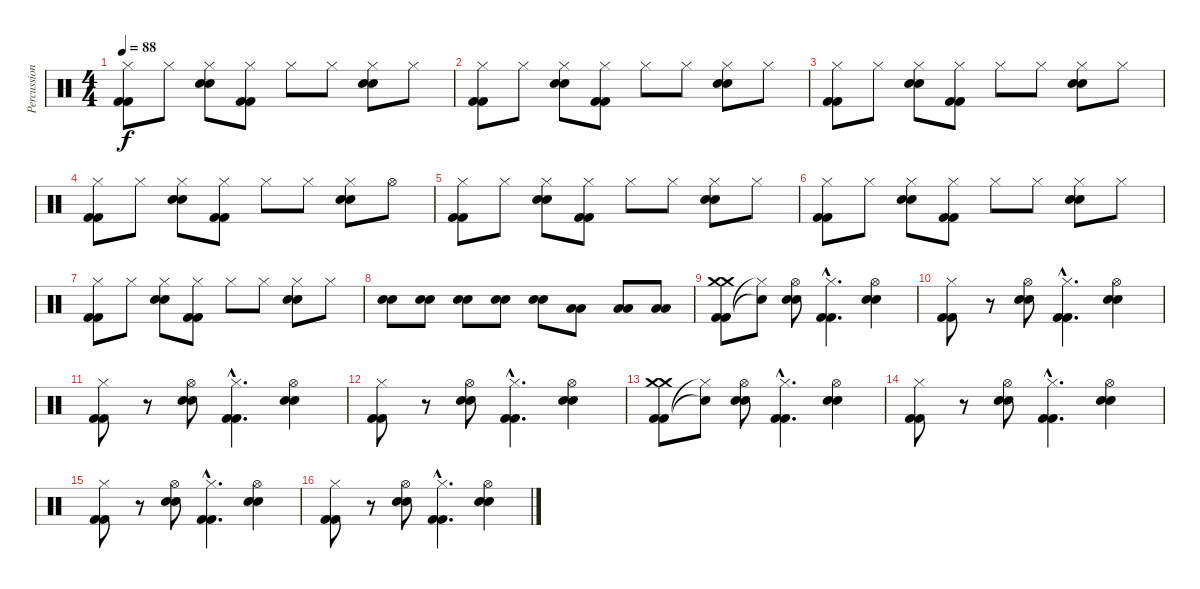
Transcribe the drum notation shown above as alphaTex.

\track ("Percussion" "Percussion") {instrument percussion}
\staff {score}
\articulation defaults
\ts (4 4)
\tempo 88
\clef neutral
\ks c
("Kick (hit) 2" "Kick (hit) 2" "Hi-Hat (closed)").8{dy f} "Hi-Hat (closed)".8 ("Snare (hit) 2" "Snare (hit) 2" "Hi-Hat (closed)").8 ("Kick (hit) 2" "Kick (hit) 2" "Hi-Hat (closed)").8 "Hi-Hat (closed)".8 "Hi-Hat (closed)".8 ("Snare (hit) 2" "Snare (hit) 2" "Hi-Hat (closed)").8 "Hi-Hat (closed)".8 |
("Kick (hit) 2" "Kick (hit) 2" "Hi-Hat (closed)").8 "Hi-Hat (closed)".8 ("Snare (hit) 2" "Snare (hit) 2" "Hi-Hat (closed)").8 ("Kick (hit) 2" "Kick (hit) 2" "Hi-Hat (closed)").8 "Hi-Hat (closed)".8 "Hi-Hat (closed)".8 ("Snare (hit) 2" "Snare (hit) 2" "Hi-Hat (closed)").8 "Hi-Hat (closed)".8 |
("Kick (hit) 2" "Kick (hit) 2" "Hi-Hat (closed)").8 "Hi-Hat (closed)".8 ("Snare (hit) 2" "Snare (hit) 2" "Hi-Hat (closed)").8 ("Kick (hit) 2" "Kick (hit) 2" "Hi-Hat (closed)").8 "Hi-Hat (closed)".8 "Hi-Hat (closed)".8 ("Snare (hit) 2" "Snare (hit) 2" "Hi-Hat (closed)").8 "Hi-Hat (closed)".8 |
("Kick (hit) 2" "Kick (hit) 2" "Hi-Hat (closed)").8 "Hi-Hat (closed)".8 ("Snare (hit) 2" "Snare (hit) 2" "Hi-Hat (closed)").8 ("Kick (hit) 2" "Kick (hit) 2" "Hi-Hat (closed)").8 "Hi-Hat (closed)".8 "Hi-Hat (closed)".8 ("Snare (hit) 2" "Snare (hit) 2" "Hi-Hat (closed)").8 "Hi-Hat (open)".8 |
("Kick (hit) 2" "Kick (hit) 2" "Hi-Hat (closed)").8 "Hi-Hat (closed)".8 ("Snare (hit) 2" "Snare (hit) 2" "Hi-Hat (closed)").8 ("Kick (hit) 2" "Kick (hit) 2" "Hi-Hat (closed)").8 "Hi-Hat (closed)".8 "Hi-Hat (closed)".8 ("Snare (hit) 2" "Snare (hit) 2" "Hi-Hat (closed)").8 "Hi-Hat (closed)".8 |
("Kick (hit) 2" "Kick (hit) 2" "Hi-Hat (closed)").8 "Hi-Hat (closed)".8 ("Snare (hit) 2" "Snare (hit) 2" "Hi-Hat (closed)").8 ("Kick (hit) 2" "Kick (hit) 2" "Hi-Hat (closed)").8 "Hi-Hat (closed)".8 "Hi-Hat (closed)".8 ("Snare (hit) 2" "Snare (hit) 2" "Hi-Hat (closed)").8 "Hi-Hat (closed)".8 |
("Kick (hit) 2" "Kick (hit) 2" "Hi-Hat (closed)").8 "Hi-Hat (closed)".8 ("Snare (hit) 2" "Snare (hit) 2" "Hi-Hat (closed)").8 ("Kick (hit) 2" "Kick (hit) 2" "Hi-Hat (closed)").8 "Hi-Hat (closed)".8 "Hi-Hat (closed)".8 ("Snare (hit) 2" "Snare (hit) 2" "Hi-Hat (closed)").8 "Hi-Hat (closed)".8 |
("Snare (hit) 2" "Snare (hit) 2").8 ("Snare (hit) 2" "Snare (hit) 2").8 ("Snare (hit) 2" "Snare (hit) 2").8 ("Snare (hit) 2" "Snare (hit) 2").8 ("Snare (hit) 2" "Snare (hit) 2").8 ("Low Tom (hit)" "Low Tom (hit)").8 ("Low Tom (hit)" "Low Tom (hit)").8 ("Low Tom (hit)" "Low Tom (hit)").8 |
("Kick (hit) 2" "Kick (hit) 2" "Crash medium (hit)" "Crash medium (hit)").8 ("Snare (hit)"{t} "Hi-Hat (closed)"{t}).8 ("Snare (hit) 2" "Snare (hit) 2" "Hi-Hat (open)").8 ("Kick (hit) 2"{hac} "Kick (hit) 2"{hac} "Hi-Hat (closed)"{hac}).4{d} ("Snare (hit) 2" "Snare (hit) 2" "Hi-Hat (open)").4 |
("Kick (hit) 2" "Kick (hit) 2" "Hi-Hat (closed)").8 r.8 ("Snare (hit) 2" "Snare (hit) 2" "Hi-Hat (open)").8 ("Kick (hit) 2"{hac} "Kick (hit) 2"{hac} "Hi-Hat (closed)"{hac}).4{d} ("Snare (hit) 2" "Snare (hit) 2" "Hi-Hat (open)").4 |
("Kick (hit) 2" "Kick (hit) 2" "Hi-Hat (closed)").8 r.8 ("Snare (hit) 2" "Snare (hit) 2" "Hi-Hat (open)").8 ("Kick (hit) 2"{hac} "Kick (hit) 2"{hac} "Hi-Hat (closed)"{hac}).4{d} ("Snare (hit) 2" "Snare (hit) 2" "Hi-Hat (open)").4 |
("Kick (hit) 2" "Kick (hit) 2" "Hi-Hat (closed)").8 r.8 ("Snare (hit) 2" "Snare (hit) 2" "Hi-Hat (open)").8 ("Kick (hit) 2"{hac} "Kick (hit) 2"{hac} "Hi-Hat (closed)"{hac}).4{d} ("Snare (hit) 2" "Snare (hit) 2" "Hi-Hat (open)").4 |
("Kick (hit) 2" "Kick (hit) 2" "Crash medium (hit)" "Crash medium (hit)").8 ("Snare (hit)"{t} "Hi-Hat (closed)"{t}).8 ("Snare (hit) 2" "Snare (hit) 2" "Hi-Hat (open)").8 ("Kick (hit) 2"{hac} "Kick (hit) 2"{hac} "Hi-Hat (closed)"{hac}).4{d} ("Snare (hit) 2" "Snare (hit) 2" "Hi-Hat (open)").4 |
("Kick (hit) 2" "Kick (hit) 2" "Hi-Hat (closed)").8 r.8 ("Snare (hit) 2" "Snare (hit) 2" "Hi-Hat (open)").8 ("Kick (hit) 2"{hac} "Kick (hit) 2"{hac} "Hi-Hat (closed)"{hac}).4{d} ("Snare (hit) 2" "Snare (hit) 2" "Hi-Hat (open)").4 |
("Kick (hit) 2" "Kick (hit) 2" "Hi-Hat (closed)").8 r.8 ("Snare (hit) 2" "Snare (hit) 2" "Hi-Hat (open)").8 ("Kick (hit) 2"{hac} "Kick (hit) 2"{hac} "Hi-Hat (closed)"{hac}).4{d} ("Snare (hit) 2" "Snare (hit) 2" "Hi-Hat (open)").4 |
("Kick (hit) 2" "Kick (hit) 2" "Hi-Hat (closed)").8 r.8 ("Snare (hit) 2" "Snare (hit) 2" "Hi-Hat (open)").8 ("Kick (hit) 2"{hac} "Kick (hit) 2"{hac} "Hi-Hat (closed)"{hac}).4{d} ("Snare (hit) 2" "Snare (hit) 2" "Hi-Hat (open)").4
